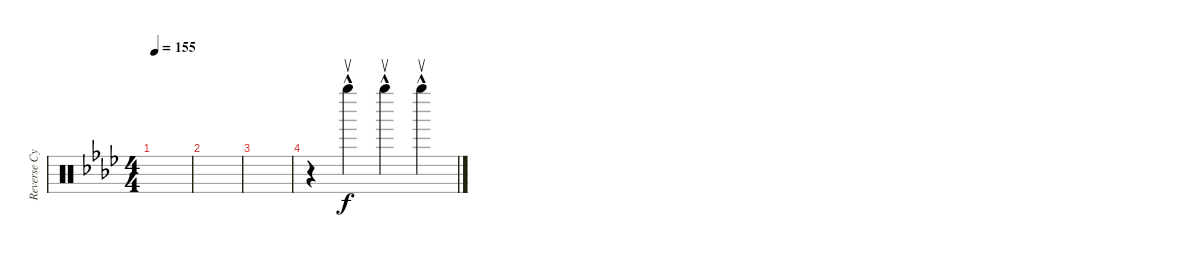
\track ("Reverse Cymbal" "Reverse Cy") {instrument percussion}
\staff {score}
\articulation defaults
\ts (4 4)
\tempo 155
\clef neutral
\ks ab
|
|
|
r.4 "Right Maraca (return)"{hac}.4 "Right Maraca (return)"{hac}.4 "Right Maraca (return)"{hac}.4
